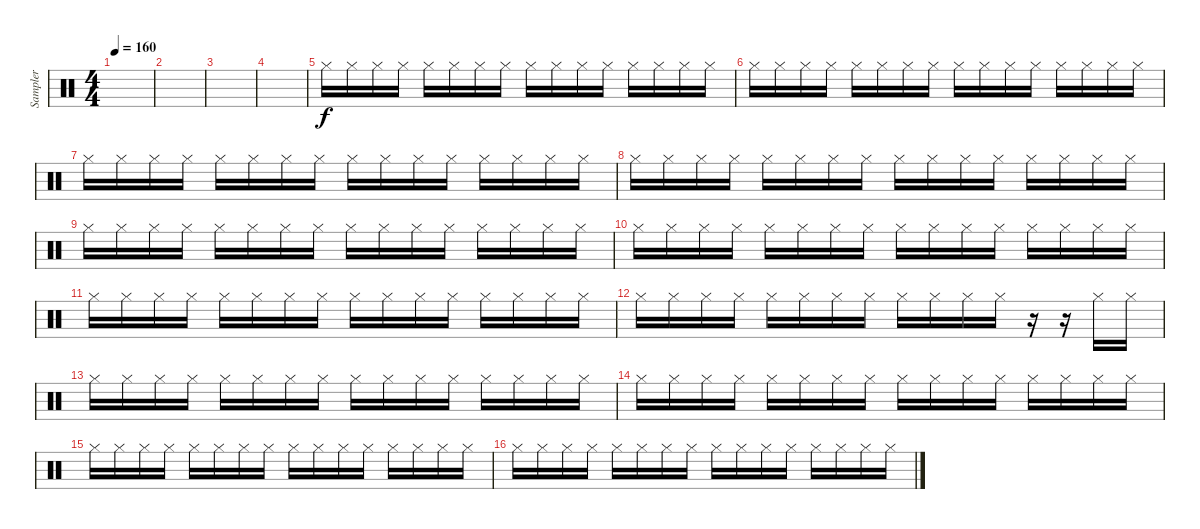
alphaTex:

\track ("Sampler" "Sampler") {instrument percussion}
\staff {score}
\articulation defaults
\ts (4 4)
\tempo 160
\clef neutral
\ks c
|
|
|
|
"Hi-Hat (closed)".16 "Hi-Hat (closed)".16 "Hi-Hat (closed)".16 "Hi-Hat (closed)".16 "Hi-Hat (closed)".16 "Hi-Hat (closed)".16 "Hi-Hat (closed)".16 "Hi-Hat (closed)".16 "Hi-Hat (closed)".16 "Hi-Hat (closed)".16 "Hi-Hat (closed)".16 "Hi-Hat (closed)".16 "Hi-Hat (closed)".16 "Hi-Hat (closed)".16 "Hi-Hat (closed)".16 "Hi-Hat (closed)".16 |
"Hi-Hat (closed)".16 "Hi-Hat (closed)".16 "Hi-Hat (closed)".16 "Hi-Hat (closed)".16 "Hi-Hat (closed)".16 "Hi-Hat (closed)".16 "Hi-Hat (closed)".16 "Hi-Hat (closed)".16 "Hi-Hat (closed)".16 "Hi-Hat (closed)".16 "Hi-Hat (closed)".16 "Hi-Hat (closed)".16 "Hi-Hat (closed)".16 "Hi-Hat (closed)".16 "Hi-Hat (closed)".16 "Hi-Hat (closed)".16 |
"Hi-Hat (closed)".16 "Hi-Hat (closed)".16 "Hi-Hat (closed)".16 "Hi-Hat (closed)".16 "Hi-Hat (closed)".16 "Hi-Hat (closed)".16 "Hi-Hat (closed)".16 "Hi-Hat (closed)".16 "Hi-Hat (closed)".16 "Hi-Hat (closed)".16 "Hi-Hat (closed)".16 "Hi-Hat (closed)".16 "Hi-Hat (closed)".16 "Hi-Hat (closed)".16 "Hi-Hat (closed)".16 "Hi-Hat (closed)".16 |
"Hi-Hat (closed)".16 "Hi-Hat (closed)".16 "Hi-Hat (closed)".16 "Hi-Hat (closed)".16 "Hi-Hat (closed)".16 "Hi-Hat (closed)".16 "Hi-Hat (closed)".16 "Hi-Hat (closed)".16 "Hi-Hat (closed)".16 "Hi-Hat (closed)".16 "Hi-Hat (closed)".16 "Hi-Hat (closed)".16 "Hi-Hat (closed)".16 "Hi-Hat (closed)".16 "Hi-Hat (closed)".16 "Hi-Hat (closed)".16 |
"Hi-Hat (closed)".16 "Hi-Hat (closed)".16 "Hi-Hat (closed)".16 "Hi-Hat (closed)".16 "Hi-Hat (closed)".16 "Hi-Hat (closed)".16 "Hi-Hat (closed)".16 "Hi-Hat (closed)".16 "Hi-Hat (closed)".16 "Hi-Hat (closed)".16 "Hi-Hat (closed)".16 "Hi-Hat (closed)".16 "Hi-Hat (closed)".16 "Hi-Hat (closed)".16 "Hi-Hat (closed)".16 "Hi-Hat (closed)".16 |
"Hi-Hat (closed)".16 "Hi-Hat (closed)".16 "Hi-Hat (closed)".16 "Hi-Hat (closed)".16 "Hi-Hat (closed)".16 "Hi-Hat (closed)".16 "Hi-Hat (closed)".16 "Hi-Hat (closed)".16 "Hi-Hat (closed)".16 "Hi-Hat (closed)".16 "Hi-Hat (closed)".16 "Hi-Hat (closed)".16 "Hi-Hat (closed)".16 "Hi-Hat (closed)".16 "Hi-Hat (closed)".16 "Hi-Hat (closed)".16 |
"Hi-Hat (closed)".16 "Hi-Hat (closed)".16 "Hi-Hat (closed)".16 "Hi-Hat (closed)".16 "Hi-Hat (closed)".16 "Hi-Hat (closed)".16 "Hi-Hat (closed)".16 "Hi-Hat (closed)".16 "Hi-Hat (closed)".16 "Hi-Hat (closed)".16 "Hi-Hat (closed)".16 "Hi-Hat (closed)".16 "Hi-Hat (closed)".16 "Hi-Hat (closed)".16 "Hi-Hat (closed)".16 "Hi-Hat (closed)".16 |
"Hi-Hat (closed)".16 "Hi-Hat (closed)".16 "Hi-Hat (closed)".16 "Hi-Hat (closed)".16 "Hi-Hat (closed)".16 "Hi-Hat (closed)".16 "Hi-Hat (closed)".16 "Hi-Hat (closed)".16 "Hi-Hat (closed)".16 "Hi-Hat (closed)".16 "Hi-Hat (closed)".16 "Hi-Hat (closed)".16 r.16 r.16 "Hi-Hat (closed)".16 "Hi-Hat (closed)".16 |
"Hi-Hat (closed)".16 "Hi-Hat (closed)".16 "Hi-Hat (closed)".16 "Hi-Hat (closed)".16 "Hi-Hat (closed)".16 "Hi-Hat (closed)".16 "Hi-Hat (closed)".16 "Hi-Hat (closed)".16 "Hi-Hat (closed)".16 "Hi-Hat (closed)".16 "Hi-Hat (closed)".16 "Hi-Hat (closed)".16 "Hi-Hat (closed)".16 "Hi-Hat (closed)".16 "Hi-Hat (closed)".16 "Hi-Hat (closed)".16 |
"Hi-Hat (closed)".16 "Hi-Hat (closed)".16 "Hi-Hat (closed)".16 "Hi-Hat (closed)".16 "Hi-Hat (closed)".16 "Hi-Hat (closed)".16 "Hi-Hat (closed)".16 "Hi-Hat (closed)".16 "Hi-Hat (closed)".16 "Hi-Hat (closed)".16 "Hi-Hat (closed)".16 "Hi-Hat (closed)".16 "Hi-Hat (closed)".16 "Hi-Hat (closed)".16 "Hi-Hat (closed)".16 "Hi-Hat (closed)".16 |
"Hi-Hat (closed)".16 "Hi-Hat (closed)".16 "Hi-Hat (closed)".16 "Hi-Hat (closed)".16 "Hi-Hat (closed)".16 "Hi-Hat (closed)".16 "Hi-Hat (closed)".16 "Hi-Hat (closed)".16 "Hi-Hat (closed)".16 "Hi-Hat (closed)".16 "Hi-Hat (closed)".16 "Hi-Hat (closed)".16 "Hi-Hat (closed)".16 "Hi-Hat (closed)".16 "Hi-Hat (closed)".16 "Hi-Hat (closed)".16 |
"Hi-Hat (closed)".16 "Hi-Hat (closed)".16 "Hi-Hat (closed)".16 "Hi-Hat (closed)".16 "Hi-Hat (closed)".16 "Hi-Hat (closed)".16 "Hi-Hat (closed)".16 "Hi-Hat (closed)".16 "Hi-Hat (closed)".16 "Hi-Hat (closed)".16 "Hi-Hat (closed)".16 "Hi-Hat (closed)".16 "Hi-Hat (closed)".16 "Hi-Hat (closed)".16 "Hi-Hat (closed)".16 "Hi-Hat (closed)".16
